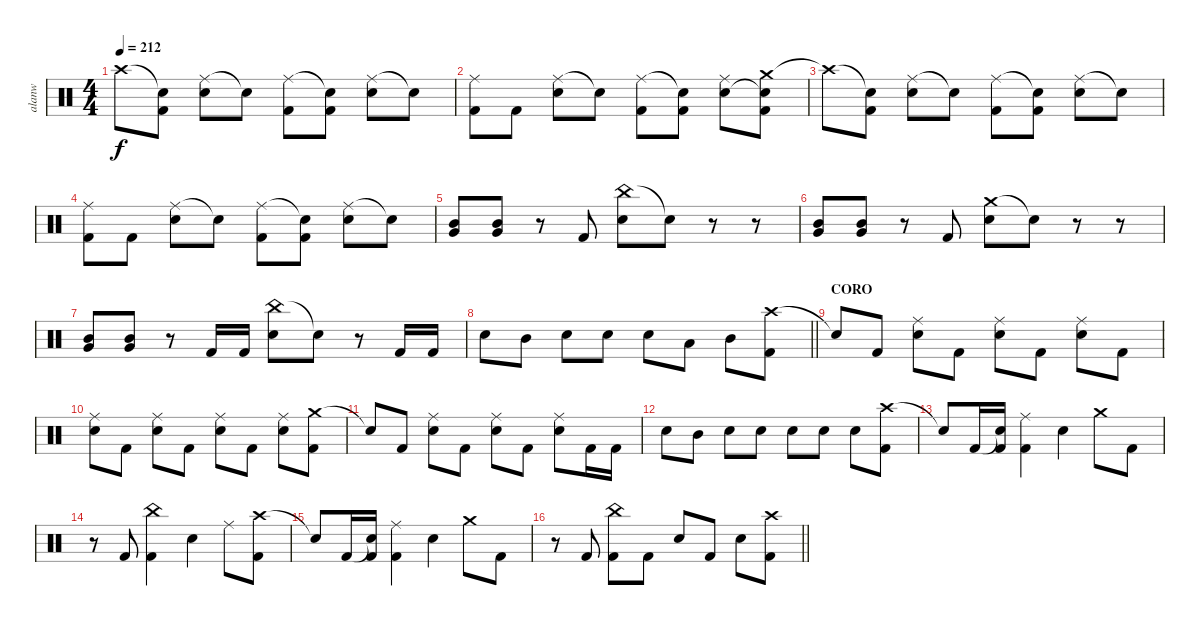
\track ("alanw" "alanw") {instrument percussion}
\staff {score}
\articulation defaults
\ts (4 4)
\tempo 212
\clef neutral
\ks c "Crash high (hit)"{t}.8{dy f}
("Snare (hit)"{t} "Kick (hit) 2").8 ("Ride (middle)" "Electric Snare (hit)").8 "Snare (hit)"{t}.8 ("Ride (middle)" "Kick (hit) 2").8 ("Snare (hit)"{t} "Kick (hit) 2").8 ("Ride (middle)" "Electric Snare (hit)").8 "Snare (hit)"{t}.8 |
("Ride (middle)" "Kick (hit) 2").8 "Kick (hit) 2".8 ("Ride (middle)" "Electric Snare (hit)").8 "Snare (hit)"{t}.8 ("Ride (middle)" "Kick (hit) 2").8 ("Snare (hit)"{t} "Kick (hit) 2").8 ("Ride (middle)" "Electric Snare (hit)").8 ("Crash medium (hit)" "Snare (hit)"{t} "Kick (hit) 2").8 |
"Crash high (hit)"{t}.8 ("Snare (hit)"{t} "Kick (hit) 2").8 ("Ride (middle)" "Electric Snare (hit)").8 "Snare (hit)"{t}.8 ("Ride (middle)" "Kick (hit) 2").8 ("Snare (hit)"{t} "Kick (hit) 2").8 ("Ride (middle)" "Electric Snare (hit)").8 "Snare (hit)"{t}.8 |
("Ride (middle)" "Kick (hit) 2").8 "Kick (hit) 2".8 ("Ride (middle)" "Electric Snare (hit)").8 "Snare (hit)"{t}.8 ("Ride (middle)" "Kick (hit) 2").8 ("Snare (hit)"{t} "Kick (hit) 2").8 ("Ride (middle)" "Electric Snare (hit)").8 "Snare (hit)"{t}.8 |
("Mid Tom (hit)" "Very Low Tom (hit)").8 ("Mid Tom (hit)" "Very Low Tom (hit)").8 r.8 "Kick (hit) 2".8 ("China (hit)" "Electric Snare (hit)").8 "Snare (hit)"{t}.8 r.8 r.8 |
("Mid Tom (hit)" "Very Low Tom (hit)").8 ("Mid Tom (hit)" "Very Low Tom (hit)").8 r.8 "Kick (hit) 2".8 ("Crash medium (hit)" "Electric Snare (hit)").8 "Snare (hit)"{t}.8 r.8 r.8 |
("Mid Tom (hit)" "Very Low Tom (hit)").8 ("Mid Tom (hit)" "Very Low Tom (hit)").8 r.8 "Kick (hit) 2".16 "Kick (hit) 2".16 ("China (hit)" "Electric Snare (hit)").8 "Snare (hit)"{t}.8 r.8 "Kick (hit) 2".16 "Kick (hit) 2".16 |
\barLineRight lightlight "Electric Snare (hit)".8 "Mid Tom (hit)".8 "Electric Snare (hit)".8 "Electric Snare (hit)".8 "Electric Snare (hit)".8 "Low Tom (hit)".8 "Mid Tom (hit)".8
("Crash high (hit)" "Kick (hit) 2").8 |
\section ("" "CORO")
"Snare (hit)"{t}.8 "Kick (hit) 2".8 ("Ride (middle)" "Electric Snare (hit)").8 "Kick (hit) 2".8 ("Ride (middle)" "Electric Snare (hit)").8 "Kick (hit) 2".8 ("Ride (middle)" "Electric Snare (hit)").8 "Kick (hit) 2".8 |
("Ride (middle)" "Electric Snare (hit)").8 "Kick (hit) 2".8 ("Ride (middle)" "Electric Snare (hit)").8 "Kick (hit) 2".8 ("Ride (middle)" "Electric Snare (hit)").8 "Kick (hit) 2".8 ("Ride (middle)" "Electric Snare (hit)").8 ("Crash medium (hit)" "Kick (hit) 2").8 |
"Snare (hit)"{t}.8 "Kick (hit) 2".8 ("Ride (middle)" "Electric Snare (hit)").8 "Kick (hit) 2".8 ("Ride (middle)" "Electric Snare (hit)").8 "Kick (hit) 2".8 ("Ride (middle)" "Electric Snare (hit)").8 "Kick (hit) 2".16 "Kick (hit) 2".16 |
"Electric Snare (hit)".8 "Mid Tom (hit)".8 "Electric Snare (hit)".8 "Electric Snare (hit)".8 "Electric Snare (hit)".8 "Electric Snare (hit)".8 "Electric Snare (hit)".8 ("Crash high (hit)" "Kick (hit) 2").8 |
"Snare (hit)"{t}.8 "Kick (hit) 2".16 ("Snare (hit)"{t} "Kick (hit) 2").16 ("Ride (middle)" "Kick (hit) 2").4 "Electric Snare (hit)".4 "Crash medium (hit)".8 "Kick (hit) 2".8 |
r.8 "Kick (hit) 2".8 ("China (hit)" "Kick (hit) 2").4 "Electric Snare (hit)".4 "Ride (middle)".8 ("Crash high (hit)" "Kick (hit) 2").8 |
"Snare (hit)"{t}.8 "Kick (hit) 2".16 ("Snare (hit)"{t} "Kick (hit) 2").16 ("Ride (middle)" "Kick (hit) 2").4 "Electric Snare (hit)".4 "Crash medium (hit)".8 "Kick (hit) 2".8 |
\barLineRight lightlight
r.8 "Kick (hit) 2".8 ("China (hit)" "Kick (hit) 2").8 "Kick (hit) 2".8 "Electric Snare (hit)".8 "Kick (hit) 2".8 "Electric Snare (hit)".8 ("Crash high (hit)" "Kick (hit) 2").8
